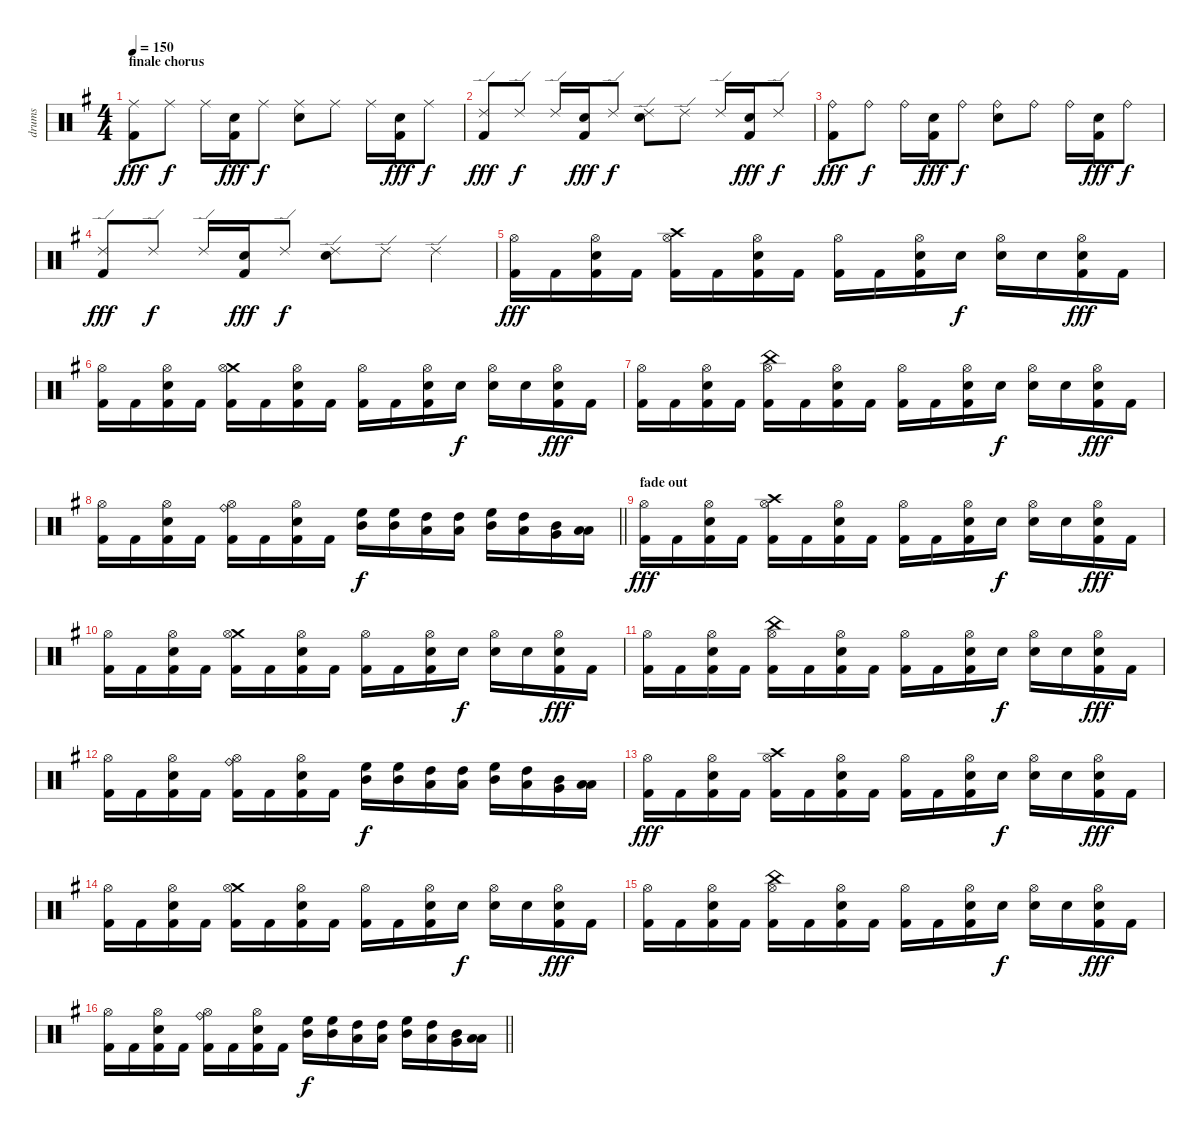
\track ("drums" "drums") {instrument percussion}
\staff {score}
\articulation defaults
\ts (4 4)
\section ("" "finale chorus")
\tempo 150
\clef neutral
\ks eminor
("Ride (middle)" "Kick (hit) 2").8{dy fff} "Ride (middle)".8{dy f} "Ride (middle)".16 ("Electric Snare (hit)" "Kick (hit) 2").16{dy fff} "Ride (middle)".8{dy f} ("Ride (middle)" "Electric Snare (hit)").8 "Ride (middle)".8 "Ride (middle)".16 ("Electric Snare (hit)" "Kick (hit) 2").16{dy fff} "Ride (middle)".8{dy f} |
("Ride (edge) 2" "Kick (hit) 2").8{dy fff} "Ride (edge) 2".8{dy f} "Ride (edge) 2".16 ("Electric Snare (hit)" "Kick (hit) 2").16{dy fff} "Ride (edge) 2".8{dy f} ("Ride (edge) 2" "Electric Snare (hit)").8 "Ride (edge) 2".8 "Ride (edge) 2".16 ("Electric Snare (hit)" "Kick (hit) 2").16{dy fff} "Ride (edge) 2".8{dy f} |
("Ride (bell)" "Kick (hit) 2").8{dy fff} "Ride (bell)".8{dy f} "Ride (bell)".16 ("Electric Snare (hit)" "Kick (hit) 2").16{dy fff} "Ride (bell)".8{dy f} ("Ride (bell)" "Electric Snare (hit)").8 "Ride (bell)".8 "Ride (bell)".16 ("Electric Snare (hit)" "Kick (hit) 2").16{dy fff} "Ride (bell)".8{dy f} |
("Ride (edge) 2" "Kick (hit) 2").8{dy fff} "Ride (edge) 2".8{dy f} "Ride (edge) 2".16 ("Electric Snare (hit)" "Kick (hit) 2").16{dy fff} "Ride (edge) 2".8{dy f} ("Ride (edge) 2" "Electric Snare (hit)").8 "Ride (edge) 2".8 "Ride (edge) 2".4 |
("Hi-Hat (open)" "Kick (hit) 2").16{dy fff} "Kick (hit) 2".16 ("Electric Snare (hit)" "Hi-Hat (open)" "Kick (hit) 2").16 "Kick (hit) 2".16 ("Crash high (hit)" "Hi-Hat (open)" "Kick (hit) 2").16 "Kick (hit) 2".16 ("Electric Snare (hit)" "Hi-Hat (open)" "Kick (hit) 2").16 "Kick (hit) 2".16 ("Hi-Hat (open)" "Kick (hit) 2").16 "Kick (hit) 2".16 ("Electric Snare (hit)" "Hi-Hat (open)" "Kick (hit) 2").16 "Electric Snare (hit)".16{dy f} ("Electric Snare (hit)" "Hi-Hat (open)").16 "Electric Snare (hit)".16 ("Electric Snare (hit)" "Hi-Hat (open)" "Kick (hit) 2").16{dy fff} "Kick (hit) 2".16 |
("Hi-Hat (open)" "Kick (hit) 2").16 "Kick (hit) 2".16 ("Electric Snare (hit)" "Hi-Hat (open)" "Kick (hit) 2").16 "Kick (hit) 2".16 ("Crash medium (hit)" "Hi-Hat (open)" "Kick (hit) 2").16 "Kick (hit) 2".16 ("Electric Snare (hit)" "Hi-Hat (open)" "Kick (hit) 2").16 "Kick (hit) 2".16 ("Hi-Hat (open)" "Kick (hit) 2").16 "Kick (hit) 2".16 ("Electric Snare (hit)" "Hi-Hat (open)" "Kick (hit) 2").16 "Electric Snare (hit)".16{dy f} ("Electric Snare (hit)" "Hi-Hat (open)").16 "Electric Snare (hit)".16 ("Electric Snare (hit)" "Hi-Hat (open)" "Kick (hit) 2").16{dy fff} "Kick (hit) 2".16 |
("Hi-Hat (open)" "Kick (hit) 2").16 "Kick (hit) 2".16 ("Electric Snare (hit)" "Hi-Hat (open)" "Kick (hit) 2").16 "Kick (hit) 2".16 ("China (hit)" "Hi-Hat (open)" "Kick (hit) 2").16 "Kick (hit) 2".16 ("Electric Snare (hit)" "Hi-Hat (open)" "Kick (hit) 2").16 "Kick (hit) 2".16 ("Hi-Hat (open)" "Kick (hit) 2").16 "Kick (hit) 2".16 ("Electric Snare (hit)" "Hi-Hat (open)" "Kick (hit) 2").16 "Electric Snare (hit)".16{dy f} ("Electric Snare (hit)" "Hi-Hat (open)").16 "Electric Snare (hit)".16 ("Electric Snare (hit)" "Hi-Hat (open)" "Kick (hit) 2").16{dy fff} "Kick (hit) 2".16 |
\barLineRight lightlight
("Hi-Hat (open)" "Kick (hit) 2").16 "Kick (hit) 2".16 ("Electric Snare (hit)" "Hi-Hat (open)" "Kick (hit) 2").16 "Kick (hit) 2".16 ("Ride (bell)" "Hi-Hat (open)" "Kick (hit) 2").16 "Kick (hit) 2".16 ("Electric Snare (hit)" "Hi-Hat (open)" "Kick (hit) 2").16 "Kick (hit) 2".16 ("High Floor Tom (hit)" "Mid Tom (hit)").16{dy f} ("High Floor Tom (hit)" "Mid Tom (hit)").16 ("High Tom (hit)" "Low Tom (hit)").16 ("High Tom (hit)" "Low Tom (hit)").16 ("High Floor Tom (hit)" "Mid Tom (hit)").16 ("High Tom (hit)" "Low Tom (hit)").16 ("Mid Tom (hit)" "Very Low Tom (hit)").16 ("Low Tom (hit)" "Low Floor Tom (hit)").16 |
\section ("" "fade out")
("Hi-Hat (open)" "Kick (hit) 2").16{dy fff} "Kick (hit) 2".16 ("Electric Snare (hit)" "Hi-Hat (open)" "Kick (hit) 2").16 "Kick (hit) 2".16 ("Crash high (hit)" "Hi-Hat (open)" "Kick (hit) 2").16 "Kick (hit) 2".16 ("Electric Snare (hit)" "Hi-Hat (open)" "Kick (hit) 2").16 "Kick (hit) 2".16 ("Hi-Hat (open)" "Kick (hit) 2").16 "Kick (hit) 2".16 ("Electric Snare (hit)" "Hi-Hat (open)" "Kick (hit) 2").16 "Electric Snare (hit)".16{dy f} ("Electric Snare (hit)" "Hi-Hat (open)").16 "Electric Snare (hit)".16 ("Electric Snare (hit)" "Hi-Hat (open)" "Kick (hit) 2").16{dy fff} "Kick (hit) 2".16 |
("Hi-Hat (open)" "Kick (hit) 2").16 "Kick (hit) 2".16 ("Electric Snare (hit)" "Hi-Hat (open)" "Kick (hit) 2").16 "Kick (hit) 2".16 ("Crash medium (hit)" "Hi-Hat (open)" "Kick (hit) 2").16 "Kick (hit) 2".16 ("Electric Snare (hit)" "Hi-Hat (open)" "Kick (hit) 2").16 "Kick (hit) 2".16 ("Hi-Hat (open)" "Kick (hit) 2").16 "Kick (hit) 2".16 ("Electric Snare (hit)" "Hi-Hat (open)" "Kick (hit) 2").16 "Electric Snare (hit)".16{dy f} ("Electric Snare (hit)" "Hi-Hat (open)").16 "Electric Snare (hit)".16 ("Electric Snare (hit)" "Hi-Hat (open)" "Kick (hit) 2").16{dy fff} "Kick (hit) 2".16 |
("Hi-Hat (open)" "Kick (hit) 2").16 "Kick (hit) 2".16 ("Electric Snare (hit)" "Hi-Hat (open)" "Kick (hit) 2").16 "Kick (hit) 2".16 ("China (hit)" "Hi-Hat (open)" "Kick (hit) 2").16 "Kick (hit) 2".16 ("Electric Snare (hit)" "Hi-Hat (open)" "Kick (hit) 2").16 "Kick (hit) 2".16 ("Hi-Hat (open)" "Kick (hit) 2").16 "Kick (hit) 2".16 ("Electric Snare (hit)" "Hi-Hat (open)" "Kick (hit) 2").16 "Electric Snare (hit)".16{dy f} ("Electric Snare (hit)" "Hi-Hat (open)").16 "Electric Snare (hit)".16 ("Electric Snare (hit)" "Hi-Hat (open)" "Kick (hit) 2").16{dy fff} "Kick (hit) 2".16 |
("Hi-Hat (open)" "Kick (hit) 2").16 "Kick (hit) 2".16 ("Electric Snare (hit)" "Hi-Hat (open)" "Kick (hit) 2").16 "Kick (hit) 2".16 ("Ride (bell)" "Hi-Hat (open)" "Kick (hit) 2").16 "Kick (hit) 2".16 ("Electric Snare (hit)" "Hi-Hat (open)" "Kick (hit) 2").16 "Kick (hit) 2".16 ("High Floor Tom (hit)" "Mid Tom (hit)").16{dy f} ("High Floor Tom (hit)" "Mid Tom (hit)").16 ("High Tom (hit)" "Low Tom (hit)").16 ("High Tom (hit)" "Low Tom (hit)").16 ("High Floor Tom (hit)" "Mid Tom (hit)").16 ("High Tom (hit)" "Low Tom (hit)").16 ("Mid Tom (hit)" "Very Low Tom (hit)").16 ("Low Tom (hit)" "Low Floor Tom (hit)").16 |
("Hi-Hat (open)" "Kick (hit) 2").16{dy fff} "Kick (hit) 2".16 ("Electric Snare (hit)" "Hi-Hat (open)" "Kick (hit) 2").16 "Kick (hit) 2".16 ("Crash high (hit)" "Hi-Hat (open)" "Kick (hit) 2").16 "Kick (hit) 2".16 ("Electric Snare (hit)" "Hi-Hat (open)" "Kick (hit) 2").16 "Kick (hit) 2".16 ("Hi-Hat (open)" "Kick (hit) 2").16 "Kick (hit) 2".16 ("Electric Snare (hit)" "Hi-Hat (open)" "Kick (hit) 2").16 "Electric Snare (hit)".16{dy f} ("Electric Snare (hit)" "Hi-Hat (open)").16 "Electric Snare (hit)".16 ("Electric Snare (hit)" "Hi-Hat (open)" "Kick (hit) 2").16{dy fff} "Kick (hit) 2".16 |
("Hi-Hat (open)" "Kick (hit) 2").16 "Kick (hit) 2".16 ("Electric Snare (hit)" "Hi-Hat (open)" "Kick (hit) 2").16 "Kick (hit) 2".16 ("Crash medium (hit)" "Hi-Hat (open)" "Kick (hit) 2").16 "Kick (hit) 2".16 ("Electric Snare (hit)" "Hi-Hat (open)" "Kick (hit) 2").16 "Kick (hit) 2".16 ("Hi-Hat (open)" "Kick (hit) 2").16 "Kick (hit) 2".16 ("Electric Snare (hit)" "Hi-Hat (open)" "Kick (hit) 2").16 "Electric Snare (hit)".16{dy f} ("Electric Snare (hit)" "Hi-Hat (open)").16 "Electric Snare (hit)".16 ("Electric Snare (hit)" "Hi-Hat (open)" "Kick (hit) 2").16{dy fff} "Kick (hit) 2".16 |
("Hi-Hat (open)" "Kick (hit) 2").16 "Kick (hit) 2".16 ("Electric Snare (hit)" "Hi-Hat (open)" "Kick (hit) 2").16 "Kick (hit) 2".16 ("China (hit)" "Hi-Hat (open)" "Kick (hit) 2").16 "Kick (hit) 2".16 ("Electric Snare (hit)" "Hi-Hat (open)" "Kick (hit) 2").16 "Kick (hit) 2".16 ("Hi-Hat (open)" "Kick (hit) 2").16 "Kick (hit) 2".16 ("Electric Snare (hit)" "Hi-Hat (open)" "Kick (hit) 2").16 "Electric Snare (hit)".16{dy f} ("Electric Snare (hit)" "Hi-Hat (open)").16 "Electric Snare (hit)".16 ("Electric Snare (hit)" "Hi-Hat (open)" "Kick (hit) 2").16{dy fff} "Kick (hit) 2".16 |
\barLineRight lightlight
("Hi-Hat (open)" "Kick (hit) 2").16 "Kick (hit) 2".16 ("Electric Snare (hit)" "Hi-Hat (open)" "Kick (hit) 2").16 "Kick (hit) 2".16 ("Ride (bell)" "Hi-Hat (open)" "Kick (hit) 2").16 "Kick (hit) 2".16 ("Electric Snare (hit)" "Hi-Hat (open)" "Kick (hit) 2").16 "Kick (hit) 2".16 ("High Floor Tom (hit)" "Mid Tom (hit)").16{dy f} ("High Floor Tom (hit)" "Mid Tom (hit)").16 ("High Tom (hit)" "Low Tom (hit)").16 ("High Tom (hit)" "Low Tom (hit)").16 ("High Floor Tom (hit)" "Mid Tom (hit)").16 ("High Tom (hit)" "Low Tom (hit)").16 ("Mid Tom (hit)" "Very Low Tom (hit)").16 ("Low Tom (hit)" "Low Floor Tom (hit)").16
